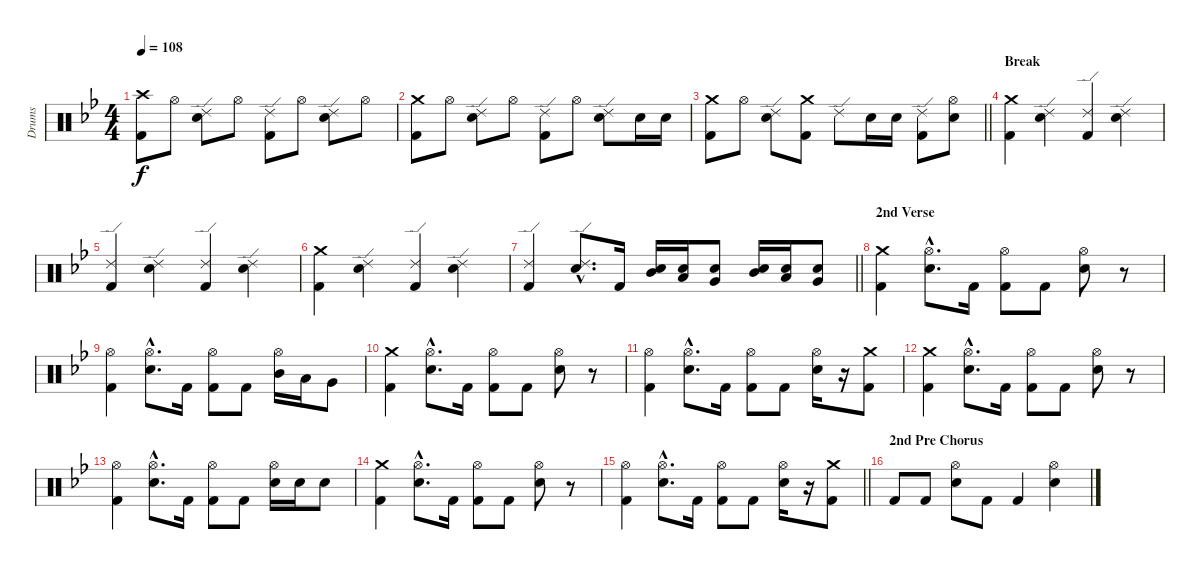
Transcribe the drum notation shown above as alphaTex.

\track ("Drums" "Drums") {instrument percussion}
\staff {score}
\articulation defaults
\ts (4 4)
\tempo 108
\clef neutral
\ks gminor
("Crash high (hit)" "Kick (hit) 2").8{dy f} "Hi-Hat (open)".8 ("Ride (edge) 2" "Snare (hit) 2").8 "Hi-Hat (open)".8 ("Ride (edge) 2" "Kick (hit) 2").8 "Hi-Hat (open)".8 ("Ride (edge) 2" "Snare (hit) 2").8 "Hi-Hat (open)".8 |
("Crash medium (hit)" "Kick (hit) 2").8 "Hi-Hat (open)".8 ("Ride (edge) 2" "Snare (hit) 2").8 "Hi-Hat (open)".8 ("Ride (edge) 2" "Kick (hit) 2").8 "Hi-Hat (open)".8 ("Ride (edge) 2" "Snare (hit) 2").8 "Snare (hit) 2".16 "Snare (hit) 2".16 |
\barLineRight lightlight
("Crash medium (hit)" "Kick (hit) 2").8 "Hi-Hat (open)".8 ("Ride (edge) 2" "Snare (hit) 2").8 ("Crash medium (hit)" "Kick (hit) 2").8 "Ride (edge) 2".8 "Snare (hit) 2".16 "Snare (hit) 2".16 ("Ride (edge) 2" "Kick (hit) 2").8 ("Hi-Hat (open)" "Snare (hit) 2").8 |
\section ("" "Break")
("Crash medium (hit)" "Kick (hit) 2").4 ("Ride (edge) 2" "Snare (hit) 2").4 ("Ride (edge) 2" "Kick (hit) 2").4 ("Ride (edge) 2" "Snare (hit) 2").4 |
("Ride (edge) 2" "Kick (hit) 2").4 ("Ride (edge) 2" "Snare (hit) 2").4 ("Ride (edge) 2" "Kick (hit) 2").4 ("Ride (edge) 2" "Snare (hit) 2").4 |
("Crash medium (hit)" "Kick (hit) 2").4 ("Ride (edge) 2" "Snare (hit) 2").4 ("Ride (edge) 2" "Kick (hit) 2").4 ("Ride (edge) 2" "Snare (hit) 2").4 |
\barLineRight lightlight
("Ride (edge) 2" "Kick (hit) 2").4 ("Ride (edge) 2"{hac} "Snare (hit) 2"{hac}).8{d} "Kick (hit) 2".16 ("Snare (hit) 2" "Mid Tom (hit)").16 ("Snare (hit) 2" "Low Tom (hit)").16 ("Snare (hit) 2" "Very Low Tom (hit)").8 ("Snare (hit) 2" "Mid Tom (hit)").16 ("Snare (hit) 2" "Low Tom (hit)").16 ("Snare (hit) 2" "Very Low Tom (hit)").8 |
\section ("" "2nd Verse")
("Crash medium (hit)" "Kick (hit) 2").4 ("Hi-Hat (open)"{hac} "Snare (hit) 2"{hac}).8{d} "Kick (hit) 2".16 ("Hi-Hat (open)" "Kick (hit) 2").8 "Kick (hit) 2".8 ("Hi-Hat (open)" "Snare (hit) 2").8 r.8 |
("Hi-Hat (open)" "Kick (hit) 2").4 ("Hi-Hat (open)"{hac} "Snare (hit) 2"{hac}).8{d} "Kick (hit) 2".16 ("Hi-Hat (open)" "Kick (hit) 2").8 "Kick (hit) 2".8 ("Hi-Hat (open)" "Mid Tom (hit)").16 "Low Tom (hit)".16 "Very Low Tom (hit)".8 |
("Crash medium (hit)" "Kick (hit) 2").4 ("Hi-Hat (open)"{hac} "Snare (hit) 2"{hac}).8{d} "Kick (hit) 2".16 ("Hi-Hat (open)" "Kick (hit) 2").8 "Kick (hit) 2".8 ("Hi-Hat (open)" "Snare (hit) 2").8 r.8 |
("Hi-Hat (open)" "Kick (hit) 2").4 ("Hi-Hat (open)"{hac} "Snare (hit) 2"{hac}).8{d} "Kick (hit) 2".16 ("Hi-Hat (open)" "Kick (hit) 2").8 "Kick (hit) 2".8 ("Hi-Hat (open)" "Snare (hit) 2").16 r.16 ("Crash medium (hit)" "Kick (hit) 2").8 |
("Crash medium (hit)" "Kick (hit) 2").4 ("Hi-Hat (open)"{hac} "Snare (hit) 2"{hac}).8{d} "Kick (hit) 2".16 ("Hi-Hat (open)" "Kick (hit) 2").8 "Kick (hit) 2".8 ("Hi-Hat (open)" "Snare (hit) 2").8 r.8 |
("Hi-Hat (open)" "Kick (hit) 2").4 ("Hi-Hat (open)"{hac} "Snare (hit) 2"{hac}).8{d} "Kick (hit) 2".16 ("Hi-Hat (open)" "Kick (hit) 2").8 "Kick (hit) 2".8 ("Hi-Hat (open)" "Snare (hit) 2").16 "Snare (hit) 2".16 "Snare (hit) 2".8 |
("Crash medium (hit)" "Kick (hit) 2").4 ("Hi-Hat (open)"{hac} "Snare (hit) 2"{hac}).8{d} "Kick (hit) 2".16 ("Hi-Hat (open)" "Kick (hit) 2").8 "Kick (hit) 2".8 ("Hi-Hat (open)" "Snare (hit) 2").8 r.8 |
\barLineRight lightlight
("Hi-Hat (open)" "Kick (hit) 2").4 ("Hi-Hat (open)"{hac} "Snare (hit) 2"{hac}).8{d} "Kick (hit) 2".16 ("Hi-Hat (open)" "Kick (hit) 2").8 "Kick (hit) 2".8 ("Hi-Hat (open)" "Snare (hit) 2").16 r.16 ("Crash medium (hit)" "Kick (hit) 2").8 |
\section ("" "2nd Pre Chorus")
"Kick (hit) 2".8 "Kick (hit) 2".8 ("Hi-Hat (open)" "Snare (hit) 2").8 "Kick (hit) 2".8 "Kick (hit) 2".4 ("Hi-Hat (open)" "Snare (hit) 2").4
